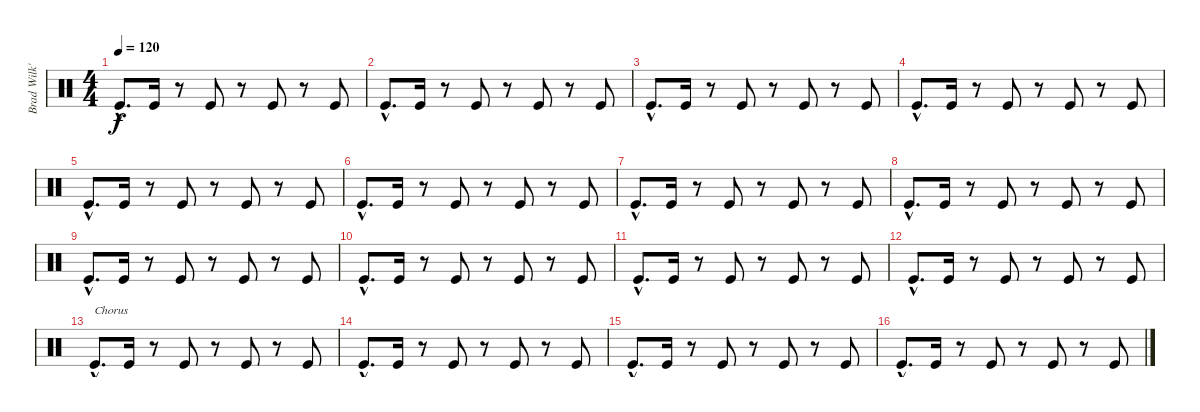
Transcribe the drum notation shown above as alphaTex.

\track ("Brad Wilk's Bass Drum" "Brad Wilk'") {instrument percussion}
\staff {score}
\articulation defaults
\ts (4 4)
\tempo 120
\clef neutral
\ks c "Kick (hit)"{hac}.8{d dy f} "Kick (hit)".16
r.8 "Kick (hit)".8 r.8 "Kick (hit)".8 r.8 "Kick (hit)".8 |
"Kick (hit)"{hac}.8{d} "Kick (hit)".16 r.8 "Kick (hit)".8 r.8 "Kick (hit)".8 r.8 "Kick (hit)".8 |
"Kick (hit)"{hac}.8{d} "Kick (hit)".16 r.8 "Kick (hit)".8 r.8 "Kick (hit)".8 r.8 "Kick (hit)".8 |
"Kick (hit)"{hac}.8{d} "Kick (hit)".16 r.8 "Kick (hit)".8 r.8 "Kick (hit)".8 r.8 "Kick (hit)".8 |
"Kick (hit)"{hac}.8{d} "Kick (hit)".16 r.8 "Kick (hit)".8 r.8 "Kick (hit)".8 r.8 "Kick (hit)".8 |
"Kick (hit)"{hac}.8{d} "Kick (hit)".16 r.8 "Kick (hit)".8 r.8 "Kick (hit)".8 r.8 "Kick (hit)".8 |
"Kick (hit)"{hac}.8{d} "Kick (hit)".16 r.8 "Kick (hit)".8 r.8 "Kick (hit)".8 r.8 "Kick (hit)".8 |
"Kick (hit)"{hac}.8{d} "Kick (hit)".16 r.8 "Kick (hit)".8 r.8 "Kick (hit)".8 r.8 "Kick (hit)".8 |
"Kick (hit)"{hac}.8{d} "Kick (hit)".16 r.8 "Kick (hit)".8 r.8 "Kick (hit)".8 r.8 "Kick (hit)".8 |
"Kick (hit)"{hac}.8{d} "Kick (hit)".16 r.8 "Kick (hit)".8 r.8 "Kick (hit)".8 r.8 "Kick (hit)".8 |
"Kick (hit)"{hac}.8{d} "Kick (hit)".16 r.8 "Kick (hit)".8 r.8 "Kick (hit)".8 r.8 "Kick (hit)".8 |
"Kick (hit)"{hac}.8{d} "Kick (hit)".16 r.8 "Kick (hit)".8 r.8 "Kick (hit)".8 r.8 "Kick (hit)".8 |
"Kick (hit)"{hac}.8{d txt "Chorus"} "Kick (hit)".16 r.8 "Kick (hit)".8 r.8 "Kick (hit)".8 r.8 "Kick (hit)".8 |
"Kick (hit)"{hac}.8{d} "Kick (hit)".16 r.8 "Kick (hit)".8 r.8 "Kick (hit)".8 r.8 "Kick (hit)".8 |
"Kick (hit)"{hac}.8{d} "Kick (hit)".16 r.8 "Kick (hit)".8 r.8 "Kick (hit)".8 r.8 "Kick (hit)".8 |
"Kick (hit)"{hac}.8{d} "Kick (hit)".16 r.8 "Kick (hit)".8 r.8 "Kick (hit)".8 r.8 "Kick (hit)".8
